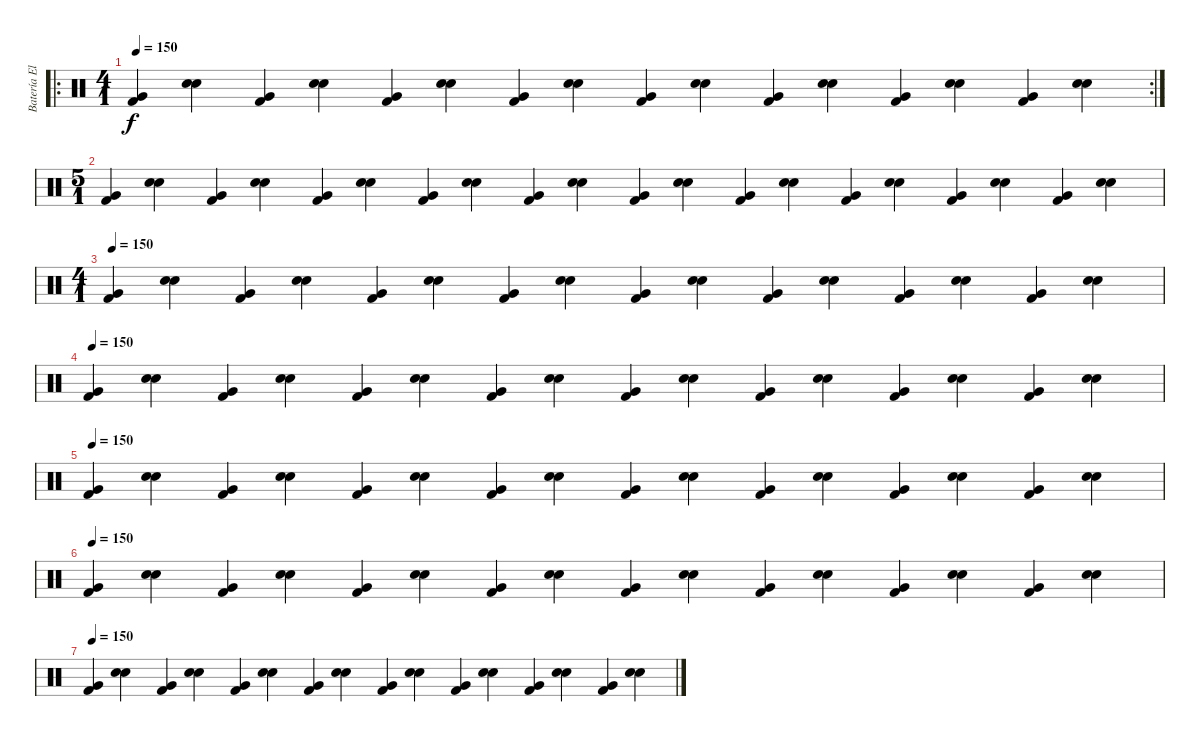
\track ("Batería Eléctrica" "Batería El") {instrument percussion}
\staff {score}
\articulation defaults
\ro
\rc 2
\ts (4 1)
\tempo 150
\clef neutral
\ks c
("Very Low Tom (hit)" "Kick (hit) 2").4{dy f} ("Snare (hit) 2" "Electric Snare (hit)").4 ("Very Low Tom (hit)" "Kick (hit) 2").4 ("Snare (hit) 2" "Electric Snare (hit)").4 ("Very Low Tom (hit)" "Kick (hit) 2").4 ("Snare (hit) 2" "Electric Snare (hit)").4 ("Very Low Tom (hit)" "Kick (hit) 2").4 ("Snare (hit) 2" "Electric Snare (hit)").4 ("Very Low Tom (hit)" "Kick (hit) 2").4 ("Snare (hit) 2" "Electric Snare (hit)").4 ("Very Low Tom (hit)" "Kick (hit) 2").4 ("Snare (hit) 2" "Electric Snare (hit)").4 ("Very Low Tom (hit)" "Kick (hit) 2").4 ("Snare (hit) 2" "Electric Snare (hit)").4 ("Very Low Tom (hit)" "Kick (hit) 2").4 ("Snare (hit) 2" "Electric Snare (hit)").4 |
\ts (5 1)
("Very Low Tom (hit)" "Kick (hit) 2").4 ("Snare (hit) 2" "Electric Snare (hit)").4 ("Very Low Tom (hit)" "Kick (hit) 2").4 ("Snare (hit) 2" "Electric Snare (hit)").4 ("Very Low Tom (hit)" "Kick (hit) 2").4 ("Snare (hit) 2" "Electric Snare (hit)").4 ("Very Low Tom (hit)" "Kick (hit) 2").4 ("Snare (hit) 2" "Electric Snare (hit)").4 ("Very Low Tom (hit)" "Kick (hit) 2").4 ("Snare (hit) 2" "Electric Snare (hit)").4 ("Very Low Tom (hit)" "Kick (hit) 2").4 ("Snare (hit) 2" "Electric Snare (hit)").4 ("Very Low Tom (hit)" "Kick (hit) 2").4 ("Snare (hit) 2" "Electric Snare (hit)").4 ("Very Low Tom (hit)" "Kick (hit) 2").4 ("Snare (hit) 2" "Electric Snare (hit)").4 ("Very Low Tom (hit)" "Kick (hit) 2").4 ("Snare (hit) 2" "Electric Snare (hit)").4 ("Very Low Tom (hit)" "Kick (hit) 2").4 ("Snare (hit) 2" "Electric Snare (hit)").4 |
\ts (4 1)
\tempo 150
("Very Low Tom (hit)" "Kick (hit) 2").4 ("Snare (hit) 2" "Electric Snare (hit)").4 ("Very Low Tom (hit)" "Kick (hit) 2").4 ("Snare (hit) 2" "Electric Snare (hit)").4 ("Very Low Tom (hit)" "Kick (hit) 2").4 ("Snare (hit) 2" "Electric Snare (hit)").4 ("Very Low Tom (hit)" "Kick (hit) 2").4 ("Snare (hit) 2" "Electric Snare (hit)").4 ("Very Low Tom (hit)" "Kick (hit) 2").4 ("Snare (hit) 2" "Electric Snare (hit)").4 ("Very Low Tom (hit)" "Kick (hit) 2").4 ("Snare (hit) 2" "Electric Snare (hit)").4 ("Very Low Tom (hit)" "Kick (hit) 2").4 ("Snare (hit) 2" "Electric Snare (hit)").4 ("Very Low Tom (hit)" "Kick (hit) 2").4 ("Snare (hit) 2" "Electric Snare (hit)").4 |
\tempo 150
("Very Low Tom (hit)" "Kick (hit) 2").4{volume 8} ("Snare (hit) 2" "Electric Snare (hit)").4 ("Very Low Tom (hit)" "Kick (hit) 2").4 ("Snare (hit) 2" "Electric Snare (hit)").4 ("Very Low Tom (hit)" "Kick (hit) 2").4 ("Snare (hit) 2" "Electric Snare (hit)").4 ("Very Low Tom (hit)" "Kick (hit) 2").4 ("Snare (hit) 2" "Electric Snare (hit)").4 ("Very Low Tom (hit)" "Kick (hit) 2").4 ("Snare (hit) 2" "Electric Snare (hit)").4 ("Very Low Tom (hit)" "Kick (hit) 2").4 ("Snare (hit) 2" "Electric Snare (hit)").4 ("Very Low Tom (hit)" "Kick (hit) 2").4 ("Snare (hit) 2" "Electric Snare (hit)").4 ("Very Low Tom (hit)" "Kick (hit) 2").4 ("Snare (hit) 2" "Electric Snare (hit)").4 |
\tempo 150
("Very Low Tom (hit)" "Kick (hit) 2").4{volume 5} ("Snare (hit) 2" "Electric Snare (hit)").4 ("Very Low Tom (hit)" "Kick (hit) 2").4 ("Snare (hit) 2" "Electric Snare (hit)").4 ("Very Low Tom (hit)" "Kick (hit) 2").4 ("Snare (hit) 2" "Electric Snare (hit)").4 ("Very Low Tom (hit)" "Kick (hit) 2").4 ("Snare (hit) 2" "Electric Snare (hit)").4 ("Very Low Tom (hit)" "Kick (hit) 2").4 ("Snare (hit) 2" "Electric Snare (hit)").4 ("Very Low Tom (hit)" "Kick (hit) 2").4 ("Snare (hit) 2" "Electric Snare (hit)").4 ("Very Low Tom (hit)" "Kick (hit) 2").4 ("Snare (hit) 2" "Electric Snare (hit)").4 ("Very Low Tom (hit)" "Kick (hit) 2").4 ("Snare (hit) 2" "Electric Snare (hit)").4 |
\tempo 150
("Very Low Tom (hit)" "Kick (hit) 2").4{volume 1} ("Snare (hit) 2" "Electric Snare (hit)").4 ("Very Low Tom (hit)" "Kick (hit) 2").4 ("Snare (hit) 2" "Electric Snare (hit)").4 ("Very Low Tom (hit)" "Kick (hit) 2").4 ("Snare (hit) 2" "Electric Snare (hit)").4 ("Very Low Tom (hit)" "Kick (hit) 2").4 ("Snare (hit) 2" "Electric Snare (hit)").4 ("Very Low Tom (hit)" "Kick (hit) 2").4 ("Snare (hit) 2" "Electric Snare (hit)").4 ("Very Low Tom (hit)" "Kick (hit) 2").4 ("Snare (hit) 2" "Electric Snare (hit)").4 ("Very Low Tom (hit)" "Kick (hit) 2").4 ("Snare (hit) 2" "Electric Snare (hit)").4 ("Very Low Tom (hit)" "Kick (hit) 2").4 ("Snare (hit) 2" "Electric Snare (hit)").4 |
\tempo 150
("Very Low Tom (hit)" "Kick (hit) 2").4{volume 0} ("Snare (hit) 2" "Electric Snare (hit)").4 ("Very Low Tom (hit)" "Kick (hit) 2").4 ("Snare (hit) 2" "Electric Snare (hit)").4 ("Very Low Tom (hit)" "Kick (hit) 2").4 ("Snare (hit) 2" "Electric Snare (hit)").4 ("Very Low Tom (hit)" "Kick (hit) 2").4 ("Snare (hit) 2" "Electric Snare (hit)").4 ("Very Low Tom (hit)" "Kick (hit) 2").4 ("Snare (hit) 2" "Electric Snare (hit)").4 ("Very Low Tom (hit)" "Kick (hit) 2").4 ("Snare (hit) 2" "Electric Snare (hit)").4 ("Very Low Tom (hit)" "Kick (hit) 2").4 ("Snare (hit) 2" "Electric Snare (hit)").4 ("Very Low Tom (hit)" "Kick (hit) 2").4 ("Snare (hit) 2" "Electric Snare (hit)").4
